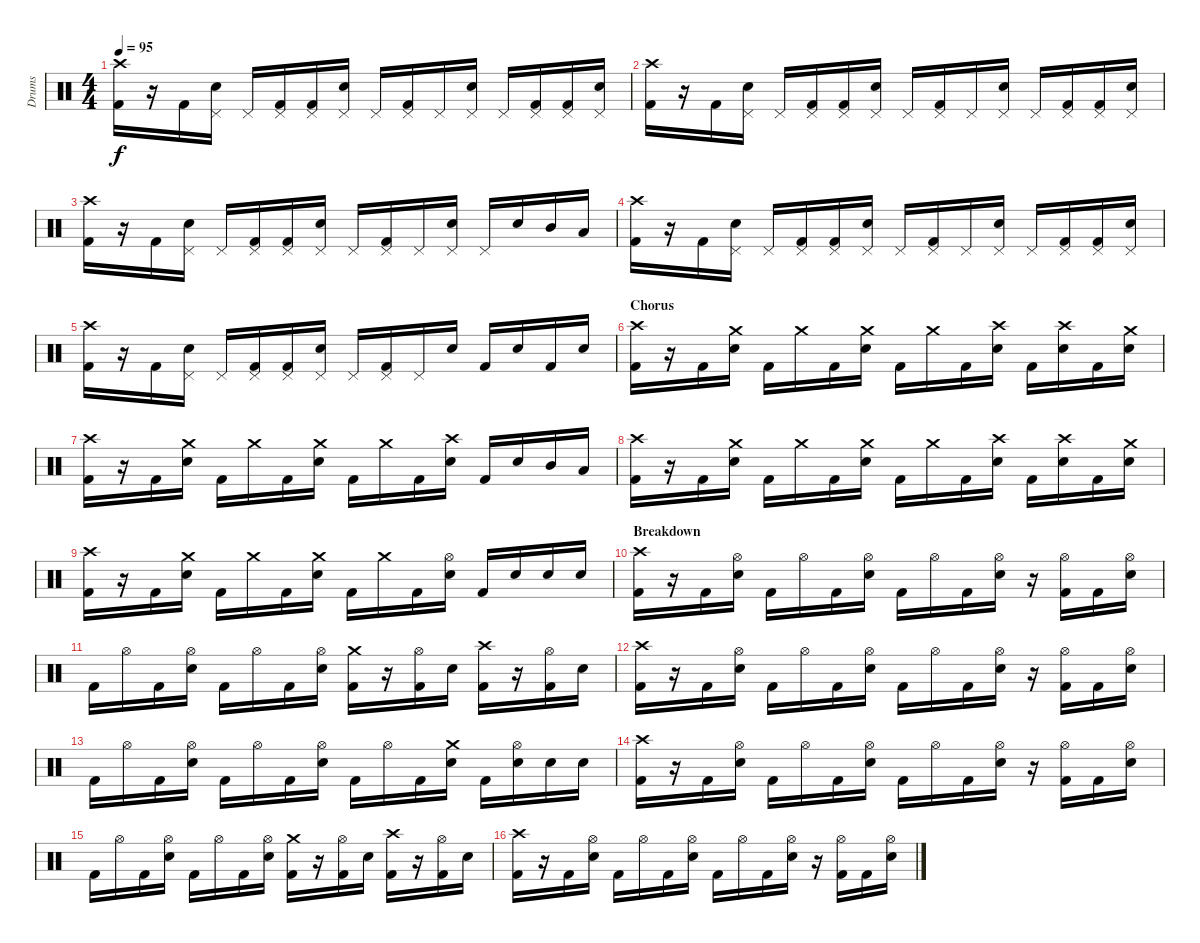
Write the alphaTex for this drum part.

\track ("Drums" "Drums") {instrument percussion}
\staff {score}
\articulation defaults
\ts (4 4)
\tempo 95
\clef neutral
\ks c
("Crash high (hit)" "Kick (hit) 2").16{dy f} r.16 "Kick (hit) 2".16 ("Pedal Hi-Hat (hit)" "Electric Snare (hit)").16 "Pedal Hi-Hat (hit)".16 ("Pedal Hi-Hat (hit)" "Kick (hit) 2").16 ("Pedal Hi-Hat (hit)" "Kick (hit) 2").16 ("Pedal Hi-Hat (hit)" "Electric Snare (hit)").16 "Pedal Hi-Hat (hit)".16 ("Pedal Hi-Hat (hit)" "Kick (hit) 2").16 "Pedal Hi-Hat (hit)".16 ("Pedal Hi-Hat (hit)" "Electric Snare (hit)").16 "Pedal Hi-Hat (hit)".16 ("Pedal Hi-Hat (hit)" "Kick (hit) 2").16 ("Pedal Hi-Hat (hit)" "Kick (hit) 2").16 ("Pedal Hi-Hat (hit)" "Electric Snare (hit)").16 |
("Crash high (hit)" "Kick (hit) 2").16 r.16 "Kick (hit) 2".16 ("Pedal Hi-Hat (hit)" "Electric Snare (hit)").16 "Pedal Hi-Hat (hit)".16 ("Pedal Hi-Hat (hit)" "Kick (hit) 2").16 ("Pedal Hi-Hat (hit)" "Kick (hit) 2").16 ("Pedal Hi-Hat (hit)" "Electric Snare (hit)").16 "Pedal Hi-Hat (hit)".16 ("Pedal Hi-Hat (hit)" "Kick (hit) 2").16 "Pedal Hi-Hat (hit)".16 ("Pedal Hi-Hat (hit)" "Electric Snare (hit)").16 "Pedal Hi-Hat (hit)".16 ("Pedal Hi-Hat (hit)" "Kick (hit) 2").16 ("Pedal Hi-Hat (hit)" "Kick (hit) 2").16 ("Pedal Hi-Hat (hit)" "Electric Snare (hit)").16 |
("Crash high (hit)" "Kick (hit) 2").16 r.16 "Kick (hit) 2".16 ("Pedal Hi-Hat (hit)" "Electric Snare (hit)").16 "Pedal Hi-Hat (hit)".16 ("Pedal Hi-Hat (hit)" "Kick (hit) 2").16 ("Pedal Hi-Hat (hit)" "Kick (hit) 2").16 ("Pedal Hi-Hat (hit)" "Electric Snare (hit)").16 "Pedal Hi-Hat (hit)".16 ("Pedal Hi-Hat (hit)" "Kick (hit) 2").16 "Pedal Hi-Hat (hit)".16 ("Pedal Hi-Hat (hit)" "Electric Snare (hit)").16 "Pedal Hi-Hat (hit)".16 "Electric Snare (hit)".16 "Mid Tom (hit)".16 "Low Tom (hit)".16 |
("Crash high (hit)" "Kick (hit) 2").16 r.16 "Kick (hit) 2".16 ("Pedal Hi-Hat (hit)" "Electric Snare (hit)").16 "Pedal Hi-Hat (hit)".16 ("Pedal Hi-Hat (hit)" "Kick (hit) 2").16 ("Pedal Hi-Hat (hit)" "Kick (hit) 2").16 ("Pedal Hi-Hat (hit)" "Electric Snare (hit)").16 "Pedal Hi-Hat (hit)".16 ("Pedal Hi-Hat (hit)" "Kick (hit) 2").16 "Pedal Hi-Hat (hit)".16 ("Pedal Hi-Hat (hit)" "Electric Snare (hit)").16 "Pedal Hi-Hat (hit)".16 ("Pedal Hi-Hat (hit)" "Kick (hit) 2").16 ("Pedal Hi-Hat (hit)" "Kick (hit) 2").16 ("Pedal Hi-Hat (hit)" "Electric Snare (hit)").16 |
("Crash high (hit)" "Kick (hit) 2").16 r.16 "Kick (hit) 2".16 ("Pedal Hi-Hat (hit)" "Electric Snare (hit)").16 "Pedal Hi-Hat (hit)".16 ("Pedal Hi-Hat (hit)" "Kick (hit) 2").16 ("Pedal Hi-Hat (hit)" "Kick (hit) 2").16 ("Pedal Hi-Hat (hit)" "Electric Snare (hit)").16 "Pedal Hi-Hat (hit)".16 ("Pedal Hi-Hat (hit)" "Kick (hit) 2").16 "Pedal Hi-Hat (hit)".16 "Electric Snare (hit)".16 "Kick (hit) 2".16 "Electric Snare (hit)".16 "Kick (hit) 2".16 "Electric Snare (hit)".16 |
\section ("" "Chorus")
("Crash high (hit)" "Kick (hit) 2").16 r.16 "Kick (hit) 2".16 ("Crash medium (hit)" "Electric Snare (hit)").16 "Kick (hit) 2".16 "Crash medium (hit)".16 "Kick (hit) 2".16 ("Crash medium (hit)" "Electric Snare (hit)").16 "Kick (hit) 2".16 "Crash medium (hit)".16 "Kick (hit) 2".16 ("Crash high (hit)" "Electric Snare (hit)").16 "Kick (hit) 2".16 ("Crash high (hit)" "Electric Snare (hit)").16 "Kick (hit) 2".16 ("Crash medium (hit)" "Electric Snare (hit)").16 |
("Crash high (hit)" "Kick (hit) 2").16 r.16 "Kick (hit) 2".16 ("Crash medium (hit)" "Electric Snare (hit)").16 "Kick (hit) 2".16 "Crash medium (hit)".16 "Kick (hit) 2".16 ("Crash medium (hit)" "Electric Snare (hit)").16 "Kick (hit) 2".16 "Crash medium (hit)".16 "Kick (hit) 2".16 ("Crash high (hit)" "Electric Snare (hit)").16 "Kick (hit) 2".16 "Electric Snare (hit)".16 "Mid Tom (hit)".16 "Low Tom (hit)".16 |
("Crash high (hit)" "Kick (hit) 2").16 r.16 "Kick (hit) 2".16 ("Crash medium (hit)" "Electric Snare (hit)").16 "Kick (hit) 2".16 "Crash medium (hit)".16 "Kick (hit) 2".16 ("Crash medium (hit)" "Electric Snare (hit)").16 "Kick (hit) 2".16 "Crash medium (hit)".16 "Kick (hit) 2".16 ("Crash high (hit)" "Electric Snare (hit)").16 "Kick (hit) 2".16 ("Crash high (hit)" "Electric Snare (hit)").16 "Kick (hit) 2".16 ("Crash medium (hit)" "Electric Snare (hit)").16 |
("Crash high (hit)" "Kick (hit) 2").16 r.16 "Kick (hit) 2".16 ("Crash medium (hit)" "Electric Snare (hit)").16 "Kick (hit) 2".16 "Crash medium (hit)".16 "Kick (hit) 2".16 ("Crash medium (hit)" "Electric Snare (hit)").16 "Kick (hit) 2".16 "Crash medium (hit)".16 "Kick (hit) 2".16 ("Hi-Hat (open)" "Electric Snare (hit)").16 "Kick (hit) 2".16 "Electric Snare (hit)".16 "Electric Snare (hit)".16 "Electric Snare (hit)".16 |
\section ("" "Breakdown")
("Crash high (hit)" "Kick (hit) 2").16 r.16 "Kick (hit) 2".16 ("Hi-Hat (open)" "Electric Snare (hit)").16 "Kick (hit) 2".16 "Hi-Hat (open)".16 "Kick (hit) 2".16 ("Hi-Hat (open)" "Electric Snare (hit)").16 "Kick (hit) 2".16 "Hi-Hat (open)".16 "Kick (hit) 2".16 ("Hi-Hat (open)" "Electric Snare (hit)").16 r.16 ("Hi-Hat (open)" "Kick (hit) 2").16 "Kick (hit) 2".16 ("Hi-Hat (open)" "Electric Snare (hit)").16 |
"Kick (hit) 2".16 "Hi-Hat (open)".16 "Kick (hit) 2".16 ("Hi-Hat (open)" "Electric Snare (hit)").16 "Kick (hit) 2".16 "Hi-Hat (open)".16 "Kick (hit) 2".16 ("Hi-Hat (open)" "Electric Snare (hit)").16 ("Crash medium (hit)" "Kick (hit) 2").16 r.16 ("Hi-Hat (open)" "Kick (hit) 2").16 "Electric Snare (hit)".16 ("Crash high (hit)" "Kick (hit) 2").16 r.16 ("Hi-Hat (open)" "Kick (hit) 2").16 "Electric Snare (hit)".16 |
("Crash high (hit)" "Kick (hit) 2").16 r.16 "Kick (hit) 2".16 ("Hi-Hat (open)" "Electric Snare (hit)").16 "Kick (hit) 2".16 "Hi-Hat (open)".16 "Kick (hit) 2".16 ("Hi-Hat (open)" "Electric Snare (hit)").16 "Kick (hit) 2".16 "Hi-Hat (open)".16 "Kick (hit) 2".16 ("Hi-Hat (open)" "Electric Snare (hit)").16 r.16 ("Hi-Hat (open)" "Kick (hit) 2").16 "Kick (hit) 2".16 ("Hi-Hat (open)" "Electric Snare (hit)").16 |
"Kick (hit) 2".16 "Hi-Hat (open)".16 "Kick (hit) 2".16 ("Hi-Hat (open)" "Electric Snare (hit)").16 "Kick (hit) 2".16 "Hi-Hat (open)".16 "Kick (hit) 2".16 ("Hi-Hat (open)" "Electric Snare (hit)").16 "Kick (hit) 2".16 "Hi-Hat (open)".16 "Kick (hit) 2".16 ("Crash medium (hit)" "Electric Snare (hit)").16 "Kick (hit) 2".16 ("Hi-Hat (open)" "Electric Snare (hit)").16 "Electric Snare (hit)".16 "Electric Snare (hit)".16 |
("Crash high (hit)" "Kick (hit) 2").16 r.16 "Kick (hit) 2".16 ("Hi-Hat (open)" "Electric Snare (hit)").16 "Kick (hit) 2".16 "Hi-Hat (open)".16 "Kick (hit) 2".16 ("Hi-Hat (open)" "Electric Snare (hit)").16 "Kick (hit) 2".16 "Hi-Hat (open)".16 "Kick (hit) 2".16 ("Hi-Hat (open)" "Electric Snare (hit)").16 r.16 ("Hi-Hat (open)" "Kick (hit) 2").16 "Kick (hit) 2".16 ("Hi-Hat (open)" "Electric Snare (hit)").16 |
"Kick (hit) 2".16 "Hi-Hat (open)".16 "Kick (hit) 2".16 ("Hi-Hat (open)" "Electric Snare (hit)").16 "Kick (hit) 2".16 "Hi-Hat (open)".16 "Kick (hit) 2".16 ("Hi-Hat (open)" "Electric Snare (hit)").16 ("Crash medium (hit)" "Kick (hit) 2").16 r.16 ("Hi-Hat (open)" "Kick (hit) 2").16 "Electric Snare (hit)".16 ("Crash high (hit)" "Kick (hit) 2").16 r.16 ("Hi-Hat (open)" "Kick (hit) 2").16 "Electric Snare (hit)".16 |
("Crash high (hit)" "Kick (hit) 2").16 r.16 "Kick (hit) 2".16 ("Hi-Hat (open)" "Electric Snare (hit)").16 "Kick (hit) 2".16 "Hi-Hat (open)".16 "Kick (hit) 2".16 ("Hi-Hat (open)" "Electric Snare (hit)").16 "Kick (hit) 2".16 "Hi-Hat (open)".16 "Kick (hit) 2".16 ("Hi-Hat (open)" "Electric Snare (hit)").16 r.16 ("Hi-Hat (open)" "Kick (hit) 2").16 "Kick (hit) 2".16 ("Hi-Hat (open)" "Electric Snare (hit)").16
